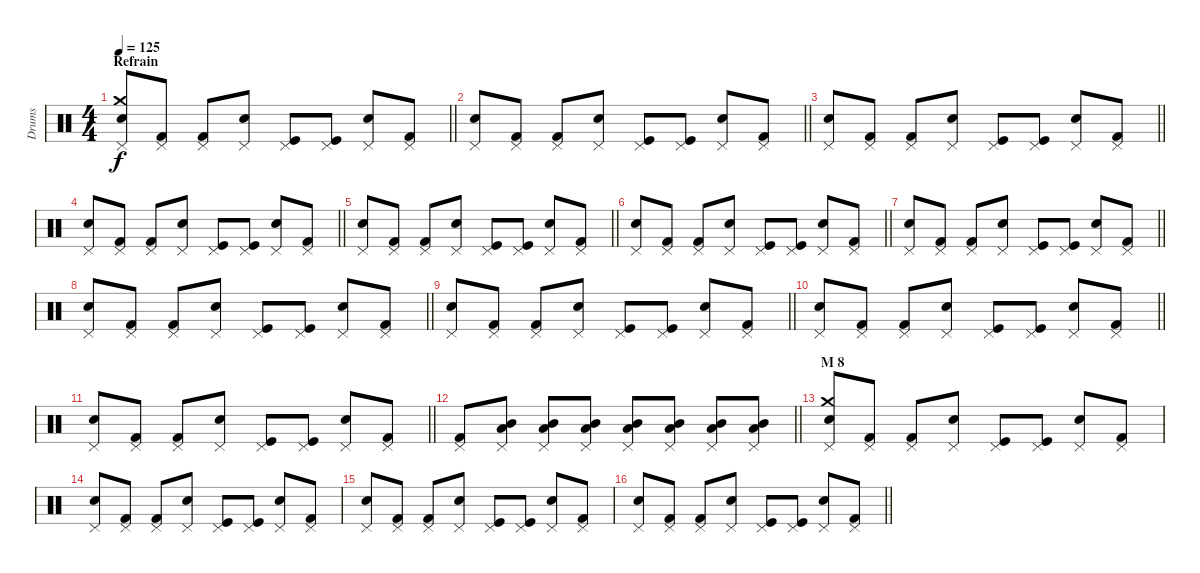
\track ("Drums" "Drums") {instrument percussion}
\staff {score}
\articulation defaults
\ts (4 4)
\section ("" "Refrain")
\tempo 125
\clef neutral
\barLineRight lightlight
\ks c
("Electric Snare (hit)" "Crash medium (hit)" "Pedal Hi-Hat (hit)").8{dy f} ("Kick (hit) 2" "Pedal Hi-Hat (hit)").8 ("Kick (hit) 2" "Pedal Hi-Hat (hit)").8 ("Electric Snare (hit)" "Pedal Hi-Hat (hit)").8 ("Kick (hit)" "Pedal Hi-Hat (hit)").8 ("Kick (hit)" "Pedal Hi-Hat (hit)").8 ("Electric Snare (hit)" "Pedal Hi-Hat (hit)").8 ("Kick (hit) 2" "Pedal Hi-Hat (hit)").8 |
\barLineRight lightlight
("Electric Snare (hit)" "Pedal Hi-Hat (hit)").8 ("Kick (hit) 2" "Pedal Hi-Hat (hit)").8 ("Kick (hit) 2" "Pedal Hi-Hat (hit)").8 ("Electric Snare (hit)" "Pedal Hi-Hat (hit)").8 ("Kick (hit)" "Pedal Hi-Hat (hit)").8 ("Kick (hit)" "Pedal Hi-Hat (hit)").8 ("Electric Snare (hit)" "Pedal Hi-Hat (hit)").8 ("Kick (hit) 2" "Pedal Hi-Hat (hit)").8 |
\barLineRight lightlight
("Electric Snare (hit)" "Pedal Hi-Hat (hit)").8 ("Kick (hit) 2" "Pedal Hi-Hat (hit)").8 ("Kick (hit) 2" "Pedal Hi-Hat (hit)").8 ("Electric Snare (hit)" "Pedal Hi-Hat (hit)").8 ("Kick (hit)" "Pedal Hi-Hat (hit)").8 ("Kick (hit)" "Pedal Hi-Hat (hit)").8 ("Electric Snare (hit)" "Pedal Hi-Hat (hit)").8 ("Kick (hit) 2" "Pedal Hi-Hat (hit)").8 |
\barLineRight lightlight
("Electric Snare (hit)" "Pedal Hi-Hat (hit)").8 ("Kick (hit) 2" "Pedal Hi-Hat (hit)").8 ("Kick (hit) 2" "Pedal Hi-Hat (hit)").8 ("Electric Snare (hit)" "Pedal Hi-Hat (hit)").8 ("Kick (hit)" "Pedal Hi-Hat (hit)").8 ("Kick (hit)" "Pedal Hi-Hat (hit)").8 ("Electric Snare (hit)" "Pedal Hi-Hat (hit)").8 ("Kick (hit) 2" "Pedal Hi-Hat (hit)").8 |
\barLineRight lightlight
("Electric Snare (hit)" "Pedal Hi-Hat (hit)").8 ("Kick (hit) 2" "Pedal Hi-Hat (hit)").8 ("Kick (hit) 2" "Pedal Hi-Hat (hit)").8 ("Electric Snare (hit)" "Pedal Hi-Hat (hit)").8 ("Kick (hit)" "Pedal Hi-Hat (hit)").8 ("Kick (hit)" "Pedal Hi-Hat (hit)").8 ("Electric Snare (hit)" "Pedal Hi-Hat (hit)").8 ("Kick (hit) 2" "Pedal Hi-Hat (hit)").8 |
\barLineRight lightlight
("Electric Snare (hit)" "Pedal Hi-Hat (hit)").8 ("Kick (hit) 2" "Pedal Hi-Hat (hit)").8 ("Kick (hit) 2" "Pedal Hi-Hat (hit)").8 ("Electric Snare (hit)" "Pedal Hi-Hat (hit)").8 ("Kick (hit)" "Pedal Hi-Hat (hit)").8 ("Kick (hit)" "Pedal Hi-Hat (hit)").8 ("Electric Snare (hit)" "Pedal Hi-Hat (hit)").8 ("Kick (hit) 2" "Pedal Hi-Hat (hit)").8 |
\barLineRight lightlight
("Electric Snare (hit)" "Pedal Hi-Hat (hit)").8 ("Kick (hit) 2" "Pedal Hi-Hat (hit)").8 ("Kick (hit) 2" "Pedal Hi-Hat (hit)").8 ("Electric Snare (hit)" "Pedal Hi-Hat (hit)").8 ("Kick (hit)" "Pedal Hi-Hat (hit)").8 ("Kick (hit)" "Pedal Hi-Hat (hit)").8 ("Electric Snare (hit)" "Pedal Hi-Hat (hit)").8 ("Kick (hit) 2" "Pedal Hi-Hat (hit)").8 |
\barLineRight lightlight
("Electric Snare (hit)" "Pedal Hi-Hat (hit)").8 ("Kick (hit) 2" "Pedal Hi-Hat (hit)").8 ("Kick (hit) 2" "Pedal Hi-Hat (hit)").8 ("Electric Snare (hit)" "Pedal Hi-Hat (hit)").8 ("Kick (hit)" "Pedal Hi-Hat (hit)").8 ("Kick (hit)" "Pedal Hi-Hat (hit)").8 ("Electric Snare (hit)" "Pedal Hi-Hat (hit)").8 ("Kick (hit) 2" "Pedal Hi-Hat (hit)").8 |
\section ("" "")
\barLineRight lightlight
("Electric Snare (hit)" "Pedal Hi-Hat (hit)").8 ("Kick (hit) 2" "Pedal Hi-Hat (hit)").8 ("Kick (hit) 2" "Pedal Hi-Hat (hit)").8 ("Electric Snare (hit)" "Pedal Hi-Hat (hit)").8 ("Kick (hit)" "Pedal Hi-Hat (hit)").8 ("Kick (hit)" "Pedal Hi-Hat (hit)").8 ("Electric Snare (hit)" "Pedal Hi-Hat (hit)").8 ("Kick (hit) 2" "Pedal Hi-Hat (hit)").8 |
\barLineRight lightlight
("Electric Snare (hit)" "Pedal Hi-Hat (hit)").8 ("Kick (hit) 2" "Pedal Hi-Hat (hit)").8 ("Kick (hit) 2" "Pedal Hi-Hat (hit)").8 ("Electric Snare (hit)" "Pedal Hi-Hat (hit)").8 ("Kick (hit)" "Pedal Hi-Hat (hit)").8 ("Kick (hit)" "Pedal Hi-Hat (hit)").8 ("Electric Snare (hit)" "Pedal Hi-Hat (hit)").8 ("Kick (hit) 2" "Pedal Hi-Hat (hit)").8 |
\barLineRight lightlight
("Electric Snare (hit)" "Pedal Hi-Hat (hit)").8 ("Kick (hit) 2" "Pedal Hi-Hat (hit)").8 ("Kick (hit) 2" "Pedal Hi-Hat (hit)").8 ("Electric Snare (hit)" "Pedal Hi-Hat (hit)").8 ("Kick (hit)" "Pedal Hi-Hat (hit)").8 ("Kick (hit)" "Pedal Hi-Hat (hit)").8 ("Electric Snare (hit)" "Pedal Hi-Hat (hit)").8 ("Kick (hit) 2" "Pedal Hi-Hat (hit)").8 |
\barLineRight lightlight
("Kick (hit) 2" "Pedal Hi-Hat (hit)").8 ("Mid Tom (hit)" "Low Tom (hit)" "Pedal Hi-Hat (hit)").8 ("Mid Tom (hit)" "Low Tom (hit)" "Pedal Hi-Hat (hit)").8 ("Mid Tom (hit)" "Low Tom (hit)" "Pedal Hi-Hat (hit)").8 ("Mid Tom (hit)" "Low Tom (hit)" "Pedal Hi-Hat (hit)").8 ("Low Tom (hit)" "Mid Tom (hit)" "Pedal Hi-Hat (hit)").8 ("Low Tom (hit)" "Mid Tom (hit)" "Pedal Hi-Hat (hit)").8 ("Low Tom (hit)" "Mid Tom (hit)" "Pedal Hi-Hat (hit)").8 |
\section ("" "M 8")
("Electric Snare (hit)" "Crash medium (hit)" "Pedal Hi-Hat (hit)").8 ("Kick (hit) 2" "Pedal Hi-Hat (hit)").8 ("Kick (hit) 2" "Pedal Hi-Hat (hit)").8 ("Electric Snare (hit)" "Pedal Hi-Hat (hit)").8 ("Kick (hit)" "Pedal Hi-Hat (hit)").8 ("Kick (hit)" "Pedal Hi-Hat (hit)").8 ("Electric Snare (hit)" "Pedal Hi-Hat (hit)").8 ("Kick (hit) 2" "Pedal Hi-Hat (hit)").8 |
("Electric Snare (hit)" "Pedal Hi-Hat (hit)").8 ("Kick (hit) 2" "Pedal Hi-Hat (hit)").8 ("Kick (hit) 2" "Pedal Hi-Hat (hit)").8 ("Electric Snare (hit)" "Pedal Hi-Hat (hit)").8 ("Kick (hit)" "Pedal Hi-Hat (hit)").8 ("Kick (hit)" "Pedal Hi-Hat (hit)").8 ("Electric Snare (hit)" "Pedal Hi-Hat (hit)").8 ("Kick (hit) 2" "Pedal Hi-Hat (hit)").8 |
("Electric Snare (hit)" "Pedal Hi-Hat (hit)").8 ("Kick (hit) 2" "Pedal Hi-Hat (hit)").8 ("Kick (hit) 2" "Pedal Hi-Hat (hit)").8 ("Electric Snare (hit)" "Pedal Hi-Hat (hit)").8 ("Kick (hit)" "Pedal Hi-Hat (hit)").8 ("Kick (hit)" "Pedal Hi-Hat (hit)").8 ("Electric Snare (hit)" "Pedal Hi-Hat (hit)").8 ("Kick (hit) 2" "Pedal Hi-Hat (hit)").8 |
\barLineRight lightlight
("Electric Snare (hit)" "Pedal Hi-Hat (hit)").8 ("Kick (hit) 2" "Pedal Hi-Hat (hit)").8 ("Kick (hit) 2" "Pedal Hi-Hat (hit)").8 ("Electric Snare (hit)" "Pedal Hi-Hat (hit)").8 ("Kick (hit)" "Pedal Hi-Hat (hit)").8 ("Kick (hit)" "Pedal Hi-Hat (hit)").8 ("Electric Snare (hit)" "Pedal Hi-Hat (hit)").8 ("Kick (hit) 2" "Pedal Hi-Hat (hit)").8
